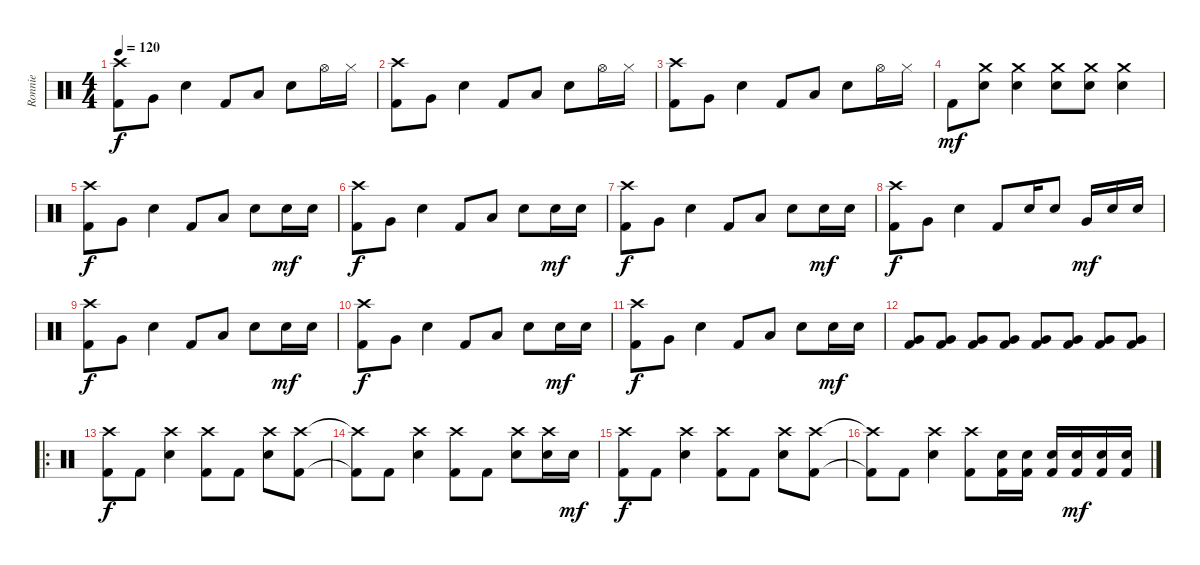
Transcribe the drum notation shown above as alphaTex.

\track ("Ronnie" "Ronnie") {instrument percussion}
\staff {score}
\articulation defaults
\ts (4 4)
\tempo 120
\clef neutral
\ks c
("Crash high (hit)" "Kick (hit) 2").8{dy f} "Very Low Tom (hit)".8 "Snare (hit) 2".4 "Kick (hit) 2".8 "Low Floor Tom (hit)".8 "Snare (hit) 2".8 "Hi-Hat (open)".16 "Hi-Hat (closed)".16 |
("Crash high (hit)" "Kick (hit) 2").8 "Very Low Tom (hit)".8 "Snare (hit) 2".4 "Kick (hit) 2".8 "Low Floor Tom (hit)".8 "Snare (hit) 2".8 "Hi-Hat (open)".16 "Hi-Hat (closed)".16 |
("Crash high (hit)" "Kick (hit) 2").8 "Very Low Tom (hit)".8 "Snare (hit) 2".4 "Kick (hit) 2".8 "Low Floor Tom (hit)".8 "Snare (hit) 2".8 "Hi-Hat (open)".16 "Hi-Hat (closed)".16 |
"Kick (hit) 2".8{dy mf} ("Crash medium (hit)" "Snare (hit) 2").8 ("Crash medium (hit)" "Snare (hit) 2").4 ("Crash medium (hit)" "Snare (hit) 2").8 ("Crash medium (hit)" "Snare (hit) 2").8 ("Crash medium (hit)" "Snare (hit) 2").4 |
("Crash high (hit)" "Kick (hit) 2").8{dy f} "Very Low Tom (hit)".8 "Snare (hit) 2".4 "Kick (hit) 2".8 "Low Floor Tom (hit)".8 "Snare (hit) 2".8 "Snare (hit) 2".16{dy mf} "Snare (hit) 2".16 |
("Crash high (hit)" "Kick (hit) 2").8{dy f} "Very Low Tom (hit)".8 "Snare (hit) 2".4 "Kick (hit) 2".8 "Low Floor Tom (hit)".8 "Snare (hit) 2".8 "Snare (hit) 2".16{dy mf} "Snare (hit) 2".16 |
("Crash high (hit)" "Kick (hit) 2").8{dy f} "Very Low Tom (hit)".8 "Snare (hit) 2".4 "Kick (hit) 2".8 "Low Floor Tom (hit)".8 "Snare (hit) 2".8 "Snare (hit) 2".16{dy mf} "Snare (hit) 2".16 |
("Crash high (hit)" "Kick (hit) 2").8{dy f} "Very Low Tom (hit)".8 "Snare (hit) 2".4 "Kick (hit) 2".8 "Snare (hit) 2".16 "Snare (hit) 2".8 "Very Low Tom (hit)".16{dy mf} "Snare (hit) 2".16 "Snare (hit) 2".16 |
("Crash high (hit)" "Kick (hit) 2").8{dy f} "Very Low Tom (hit)".8 "Snare (hit) 2".4 "Kick (hit) 2".8 "Low Floor Tom (hit)".8 "Snare (hit) 2".8 "Snare (hit) 2".16{dy mf} "Snare (hit) 2".16 |
("Crash high (hit)" "Kick (hit) 2").8{dy f} "Very Low Tom (hit)".8 "Snare (hit) 2".4 "Kick (hit) 2".8 "Low Floor Tom (hit)".8 "Snare (hit) 2".8 "Snare (hit) 2".16{dy mf} "Snare (hit) 2".16 |
("Crash high (hit)" "Kick (hit) 2").8{dy f} "Very Low Tom (hit)".8 "Snare (hit) 2".4 "Kick (hit) 2".8 "Low Floor Tom (hit)".8 "Snare (hit) 2".8 "Snare (hit) 2".16{dy mf} "Snare (hit) 2".16 |
("Very Low Tom (hit)" "Kick (hit) 2").8 ("Very Low Tom (hit)" "Kick (hit) 2").8 ("Very Low Tom (hit)" "Kick (hit) 2").8 ("Very Low Tom (hit)" "Kick (hit) 2").8 ("Very Low Tom (hit)" "Kick (hit) 2").8 ("Very Low Tom (hit)" "Kick (hit) 2").8 ("Very Low Tom (hit)" "Kick (hit) 2").8 ("Very Low Tom (hit)" "Kick (hit) 2").8 |
\ro
("Crash high (hit)" "Kick (hit) 2").8{dy f} "Kick (hit) 2".8 ("Crash high (hit)" "Snare (hit) 2").4 ("Crash high (hit)" "Kick (hit) 2").8 "Kick (hit) 2".8 ("Crash high (hit)" "Snare (hit) 2").8 ("Crash high (hit)" "Kick (hit) 2").8 |
("Crash high (hit)"{t} "Kick (hit) 2"{t}).8 "Kick (hit) 2".8 ("Crash high (hit)" "Snare (hit) 2").4 ("Crash high (hit)" "Kick (hit) 2").8 "Kick (hit) 2".8 ("Crash high (hit)" "Snare (hit) 2").8 ("Crash high (hit)" "Snare (hit) 2").16 "Snare (hit) 2".16{dy mf} |
("Crash high (hit)" "Kick (hit) 2").8{dy f} "Kick (hit) 2".8 ("Crash high (hit)" "Snare (hit) 2").4 ("Crash high (hit)" "Kick (hit) 2").8 "Kick (hit) 2".8 ("Crash high (hit)" "Snare (hit) 2").8 ("Crash high (hit)" "Kick (hit) 2").8 |
("Crash high (hit)"{t} "Kick (hit) 2"{t}).8 "Kick (hit) 2".8 ("Crash high (hit)" "Snare (hit) 2").4 ("Crash high (hit)" "Kick (hit) 2").8 ("Kick (hit) 2" "Snare (hit) 2").16 ("Kick (hit) 2" "Snare (hit) 2").16 ("Kick (hit) 2" "Snare (hit) 2").16 ("Kick (hit) 2" "Snare (hit) 2").16{dy mf} ("Kick (hit) 2" "Snare (hit) 2").16 ("Kick (hit) 2" "Snare (hit) 2").16
